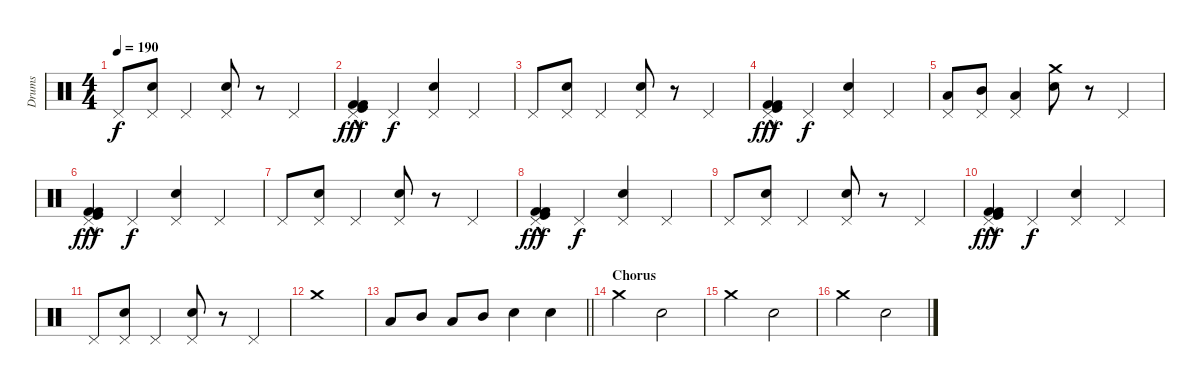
\track ("Drums" "Drums") {instrument percussion}
\staff {score}
\articulation defaults
\ts (4 4)
\tempo 190
\clef neutral
\ks c "Pedal Hi-Hat (hit)".8{dy f}
("Pedal Hi-Hat (hit)" "Snare (hit) 2").8 "Pedal Hi-Hat (hit)".4 ("Pedal Hi-Hat (hit)" "Snare (hit) 2").8 r.8 "Pedal Hi-Hat (hit)".4 |
("Pedal Hi-Hat (hit)" "Kick (hit) 2"{hac} "Kick (hit)"{hac} "Kick (hit) 2"{hac}).4{dy fff} "Pedal Hi-Hat (hit)".4{dy f} ("Pedal Hi-Hat (hit)" "Snare (hit) 2").4 "Pedal Hi-Hat (hit)".4 |
"Pedal Hi-Hat (hit)".8 ("Pedal Hi-Hat (hit)" "Snare (hit) 2").8 "Pedal Hi-Hat (hit)".4 ("Pedal Hi-Hat (hit)" "Snare (hit) 2").8 r.8 "Pedal Hi-Hat (hit)".4 |
("Pedal Hi-Hat (hit)" "Kick (hit) 2"{hac} "Kick (hit)"{hac} "Kick (hit) 2"{hac}).4{dy fff} "Pedal Hi-Hat (hit)".4{dy f} ("Pedal Hi-Hat (hit)" "Snare (hit) 2").4 "Pedal Hi-Hat (hit)".4 |
("Pedal Hi-Hat (hit)" "Low Tom (hit)").8 ("Pedal Hi-Hat (hit)" "Mid Tom (hit)").8 ("Pedal Hi-Hat (hit)" "Low Tom (hit)").4 ("Crash medium (hit)" "Snare (hit) 2").8 r.8 "Pedal Hi-Hat (hit)".4 |
("Pedal Hi-Hat (hit)" "Kick (hit) 2"{hac} "Kick (hit)"{hac} "Kick (hit) 2"{hac}).4{dy fff} "Pedal Hi-Hat (hit)".4{dy f} ("Pedal Hi-Hat (hit)" "Snare (hit) 2").4 "Pedal Hi-Hat (hit)".4 |
"Pedal Hi-Hat (hit)".8 ("Pedal Hi-Hat (hit)" "Snare (hit) 2").8 "Pedal Hi-Hat (hit)".4 ("Pedal Hi-Hat (hit)" "Snare (hit) 2").8 r.8 "Pedal Hi-Hat (hit)".4 |
("Pedal Hi-Hat (hit)" "Kick (hit) 2"{hac} "Kick (hit)"{hac} "Kick (hit) 2"{hac}).4{dy fff} "Pedal Hi-Hat (hit)".4{dy f} ("Pedal Hi-Hat (hit)" "Snare (hit) 2").4 "Pedal Hi-Hat (hit)".4 |
"Pedal Hi-Hat (hit)".8 ("Pedal Hi-Hat (hit)" "Snare (hit) 2").8 "Pedal Hi-Hat (hit)".4 ("Pedal Hi-Hat (hit)" "Snare (hit) 2").8 r.8 "Pedal Hi-Hat (hit)".4 |
("Pedal Hi-Hat (hit)" "Kick (hit) 2"{hac} "Kick (hit)"{hac} "Kick (hit) 2"{hac}).4{dy fff} "Pedal Hi-Hat (hit)".4{dy f} ("Pedal Hi-Hat (hit)" "Snare (hit) 2").4 "Pedal Hi-Hat (hit)".4 |
"Pedal Hi-Hat (hit)".8 ("Pedal Hi-Hat (hit)" "Snare (hit) 2").8 "Pedal Hi-Hat (hit)".4 ("Pedal Hi-Hat (hit)" "Snare (hit) 2").8 r.8 "Pedal Hi-Hat (hit)".4 |
"Crash medium (hit)".1 |
\barLineRight lightlight "Low Tom (hit)".8 "Mid Tom (hit)".8 "Low Tom (hit)".8 "Mid Tom (hit)".8 "Snare (hit) 2".4 "Snare (hit) 2".4
|
\section ("" "Chorus")
"Crash medium (hit)".2 "Snare (hit) 2".2 |
"Crash medium (hit)".2 "Snare (hit) 2".2 |
"Crash medium (hit)".2 "Snare (hit) 2".2
